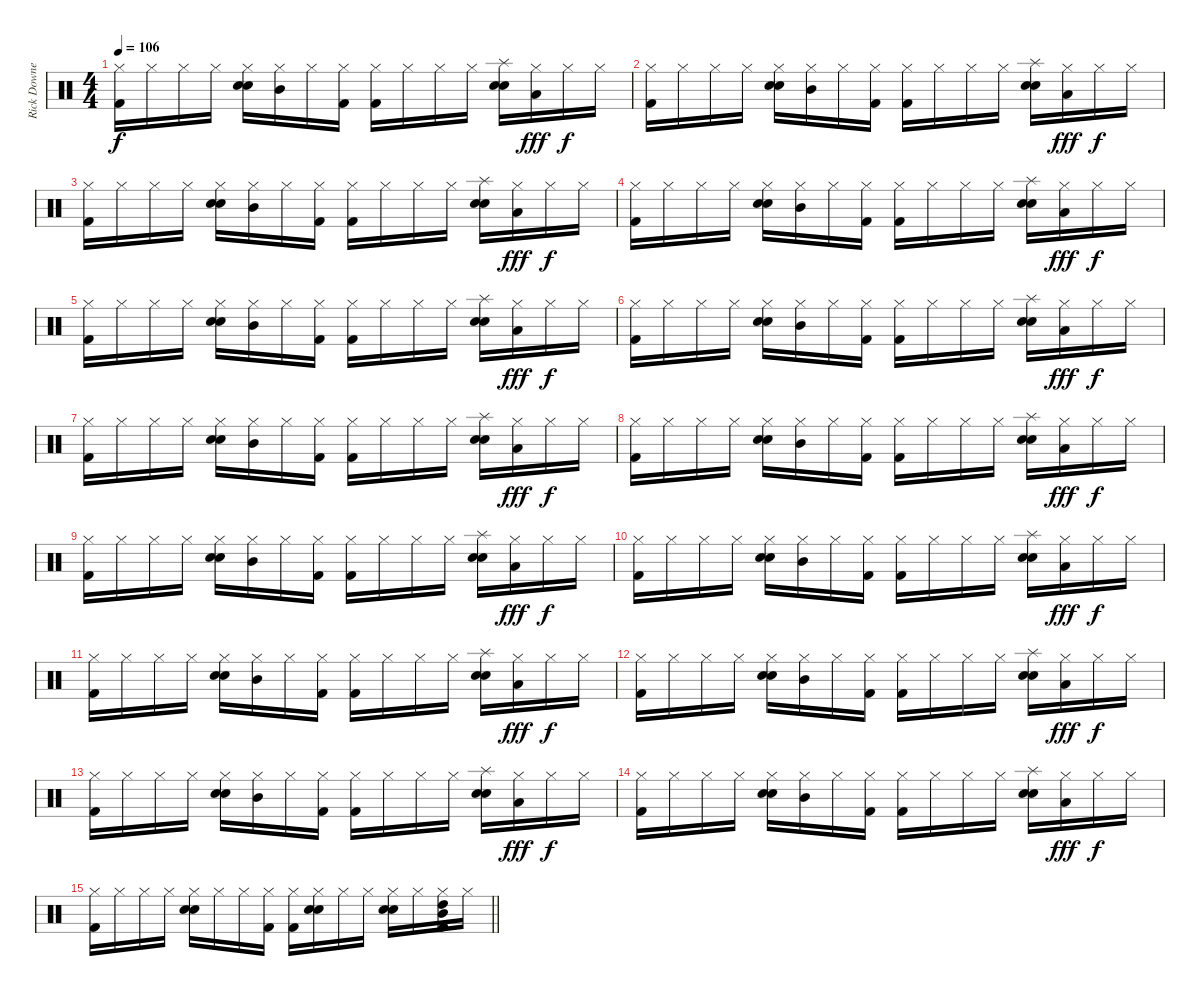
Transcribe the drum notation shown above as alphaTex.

\track ("Rick Downey" "Rick Downe") {instrument percussion}
\staff {score}
\articulation defaults
\ts (4 4)
\tempo 106
\clef neutral
\ks c
("Hi-Hat (closed)" "Kick (hit) 2").16{dy f} "Hi-Hat (closed)".16 "Hi-Hat (closed)".16 "Hi-Hat (closed)".16 ("Hi-Hat (closed)" "Electric Snare (hit)" "Snare (hit) 2").16 ("Mid Tom (hit)" "Hi-Hat (closed)").16 "Hi-Hat (closed)".16 ("Hi-Hat (closed)" "Kick (hit) 2").16 ("Hi-Hat (closed)" "Kick (hit) 2").16 "Hi-Hat (closed)".16 "Hi-Hat (closed)".16 "Hi-Hat (closed)".16 ("Splash (hit)" "Electric Snare (hit)" "Snare (hit) 2").16 ("Low Tom (hit)" "Hi-Hat (closed)").16{dy fff} "Hi-Hat (closed)".16{dy f} "Hi-Hat (closed)".16 |
("Hi-Hat (closed)" "Kick (hit) 2").16 "Hi-Hat (closed)".16 "Hi-Hat (closed)".16 "Hi-Hat (closed)".16 ("Hi-Hat (closed)" "Electric Snare (hit)" "Snare (hit) 2").16 ("Mid Tom (hit)" "Hi-Hat (closed)").16 "Hi-Hat (closed)".16 ("Hi-Hat (closed)" "Kick (hit) 2").16 ("Hi-Hat (closed)" "Kick (hit) 2").16 "Hi-Hat (closed)".16 "Hi-Hat (closed)".16 "Hi-Hat (closed)".16 ("Splash (hit)" "Electric Snare (hit)" "Snare (hit) 2").16 ("Low Tom (hit)" "Hi-Hat (closed)").16{dy fff} "Hi-Hat (closed)".16{dy f} "Hi-Hat (closed)".16 |
("Hi-Hat (closed)" "Kick (hit) 2").16 "Hi-Hat (closed)".16 "Hi-Hat (closed)".16 "Hi-Hat (closed)".16 ("Hi-Hat (closed)" "Electric Snare (hit)" "Snare (hit) 2").16 ("Mid Tom (hit)" "Hi-Hat (closed)").16 "Hi-Hat (closed)".16 ("Hi-Hat (closed)" "Kick (hit) 2").16 ("Hi-Hat (closed)" "Kick (hit) 2").16 "Hi-Hat (closed)".16 "Hi-Hat (closed)".16 "Hi-Hat (closed)".16 ("Splash (hit)" "Electric Snare (hit)" "Snare (hit) 2").16 ("Low Tom (hit)" "Hi-Hat (closed)").16{dy fff} "Hi-Hat (closed)".16{dy f} "Hi-Hat (closed)".16 |
("Hi-Hat (closed)" "Kick (hit) 2").16 "Hi-Hat (closed)".16 "Hi-Hat (closed)".16 "Hi-Hat (closed)".16 ("Hi-Hat (closed)" "Electric Snare (hit)" "Snare (hit) 2").16 ("Mid Tom (hit)" "Hi-Hat (closed)").16 "Hi-Hat (closed)".16 ("Hi-Hat (closed)" "Kick (hit) 2").16 ("Hi-Hat (closed)" "Kick (hit) 2").16 "Hi-Hat (closed)".16 "Hi-Hat (closed)".16 "Hi-Hat (closed)".16 ("Splash (hit)" "Electric Snare (hit)" "Snare (hit) 2").16 ("Low Tom (hit)" "Hi-Hat (closed)").16{dy fff} "Hi-Hat (closed)".16{dy f} "Hi-Hat (closed)".16 |
("Hi-Hat (closed)" "Kick (hit) 2").16 "Hi-Hat (closed)".16 "Hi-Hat (closed)".16 "Hi-Hat (closed)".16 ("Hi-Hat (closed)" "Electric Snare (hit)" "Snare (hit) 2").16 ("Mid Tom (hit)" "Hi-Hat (closed)").16 "Hi-Hat (closed)".16 ("Hi-Hat (closed)" "Kick (hit) 2").16 ("Hi-Hat (closed)" "Kick (hit) 2").16 "Hi-Hat (closed)".16 "Hi-Hat (closed)".16 "Hi-Hat (closed)".16 ("Splash (hit)" "Electric Snare (hit)" "Snare (hit) 2").16 ("Low Tom (hit)" "Hi-Hat (closed)").16{dy fff} "Hi-Hat (closed)".16{dy f} "Hi-Hat (closed)".16 |
("Hi-Hat (closed)" "Kick (hit) 2").16 "Hi-Hat (closed)".16 "Hi-Hat (closed)".16 "Hi-Hat (closed)".16 ("Hi-Hat (closed)" "Electric Snare (hit)" "Snare (hit) 2").16 ("Mid Tom (hit)" "Hi-Hat (closed)").16 "Hi-Hat (closed)".16 ("Hi-Hat (closed)" "Kick (hit) 2").16 ("Hi-Hat (closed)" "Kick (hit) 2").16 "Hi-Hat (closed)".16 "Hi-Hat (closed)".16 "Hi-Hat (closed)".16 ("Splash (hit)" "Electric Snare (hit)" "Snare (hit) 2").16 ("Low Tom (hit)" "Hi-Hat (closed)").16{dy fff} "Hi-Hat (closed)".16{dy f} "Hi-Hat (closed)".16 |
("Hi-Hat (closed)" "Kick (hit) 2").16 "Hi-Hat (closed)".16 "Hi-Hat (closed)".16 "Hi-Hat (closed)".16 ("Hi-Hat (closed)" "Electric Snare (hit)" "Snare (hit) 2").16 ("Mid Tom (hit)" "Hi-Hat (closed)").16 "Hi-Hat (closed)".16 ("Hi-Hat (closed)" "Kick (hit) 2").16 ("Hi-Hat (closed)" "Kick (hit) 2").16 "Hi-Hat (closed)".16 "Hi-Hat (closed)".16 "Hi-Hat (closed)".16 ("Splash (hit)" "Electric Snare (hit)" "Snare (hit) 2").16 ("Low Tom (hit)" "Hi-Hat (closed)").16{dy fff} "Hi-Hat (closed)".16{dy f} "Hi-Hat (closed)".16 |
("Hi-Hat (closed)" "Kick (hit) 2").16 "Hi-Hat (closed)".16 "Hi-Hat (closed)".16 "Hi-Hat (closed)".16 ("Hi-Hat (closed)" "Electric Snare (hit)" "Snare (hit) 2").16 ("Mid Tom (hit)" "Hi-Hat (closed)").16 "Hi-Hat (closed)".16 ("Hi-Hat (closed)" "Kick (hit) 2").16 ("Hi-Hat (closed)" "Kick (hit) 2").16 "Hi-Hat (closed)".16 "Hi-Hat (closed)".16 "Hi-Hat (closed)".16 ("Splash (hit)" "Electric Snare (hit)" "Snare (hit) 2").16 ("Low Tom (hit)" "Hi-Hat (closed)").16{dy fff} "Hi-Hat (closed)".16{dy f} "Hi-Hat (closed)".16 |
("Hi-Hat (closed)" "Kick (hit) 2").16 "Hi-Hat (closed)".16 "Hi-Hat (closed)".16 "Hi-Hat (closed)".16 ("Hi-Hat (closed)" "Electric Snare (hit)" "Snare (hit) 2").16 ("Mid Tom (hit)" "Hi-Hat (closed)").16 "Hi-Hat (closed)".16 ("Hi-Hat (closed)" "Kick (hit) 2").16 ("Hi-Hat (closed)" "Kick (hit) 2").16 "Hi-Hat (closed)".16 "Hi-Hat (closed)".16 "Hi-Hat (closed)".16 ("Splash (hit)" "Electric Snare (hit)" "Snare (hit) 2").16 ("Low Tom (hit)" "Hi-Hat (closed)").16{dy fff} "Hi-Hat (closed)".16{dy f} "Hi-Hat (closed)".16 |
("Hi-Hat (closed)" "Kick (hit) 2").16 "Hi-Hat (closed)".16 "Hi-Hat (closed)".16 "Hi-Hat (closed)".16 ("Hi-Hat (closed)" "Electric Snare (hit)" "Snare (hit) 2").16 ("Mid Tom (hit)" "Hi-Hat (closed)").16 "Hi-Hat (closed)".16 ("Hi-Hat (closed)" "Kick (hit) 2").16 ("Hi-Hat (closed)" "Kick (hit) 2").16 "Hi-Hat (closed)".16 "Hi-Hat (closed)".16 "Hi-Hat (closed)".16 ("Splash (hit)" "Electric Snare (hit)" "Snare (hit) 2").16 ("Low Tom (hit)" "Hi-Hat (closed)").16{dy fff} "Hi-Hat (closed)".16{dy f} "Hi-Hat (closed)".16 |
("Hi-Hat (closed)" "Kick (hit) 2").16 "Hi-Hat (closed)".16 "Hi-Hat (closed)".16 "Hi-Hat (closed)".16 ("Hi-Hat (closed)" "Electric Snare (hit)" "Snare (hit) 2").16 ("Mid Tom (hit)" "Hi-Hat (closed)").16 "Hi-Hat (closed)".16 ("Hi-Hat (closed)" "Kick (hit) 2").16 ("Hi-Hat (closed)" "Kick (hit) 2").16 "Hi-Hat (closed)".16 "Hi-Hat (closed)".16 "Hi-Hat (closed)".16 ("Splash (hit)" "Electric Snare (hit)" "Snare (hit) 2").16 ("Low Tom (hit)" "Hi-Hat (closed)").16{dy fff} "Hi-Hat (closed)".16{dy f} "Hi-Hat (closed)".16 |
("Hi-Hat (closed)" "Kick (hit) 2").16 "Hi-Hat (closed)".16 "Hi-Hat (closed)".16 "Hi-Hat (closed)".16 ("Hi-Hat (closed)" "Electric Snare (hit)" "Snare (hit) 2").16 ("Mid Tom (hit)" "Hi-Hat (closed)").16 "Hi-Hat (closed)".16 ("Hi-Hat (closed)" "Kick (hit) 2").16 ("Hi-Hat (closed)" "Kick (hit) 2").16 "Hi-Hat (closed)".16 "Hi-Hat (closed)".16 "Hi-Hat (closed)".16 ("Splash (hit)" "Electric Snare (hit)" "Snare (hit) 2").16 ("Low Tom (hit)" "Hi-Hat (closed)").16{dy fff} "Hi-Hat (closed)".16{dy f} "Hi-Hat (closed)".16 |
("Hi-Hat (closed)" "Kick (hit) 2").16 "Hi-Hat (closed)".16 "Hi-Hat (closed)".16 "Hi-Hat (closed)".16 ("Hi-Hat (closed)" "Electric Snare (hit)" "Snare (hit) 2").16 ("Mid Tom (hit)" "Hi-Hat (closed)").16 "Hi-Hat (closed)".16 ("Hi-Hat (closed)" "Kick (hit) 2").16 ("Hi-Hat (closed)" "Kick (hit) 2").16 "Hi-Hat (closed)".16 "Hi-Hat (closed)".16 "Hi-Hat (closed)".16 ("Splash (hit)" "Electric Snare (hit)" "Snare (hit) 2").16 ("Low Tom (hit)" "Hi-Hat (closed)").16{dy fff} "Hi-Hat (closed)".16{dy f} "Hi-Hat (closed)".16 |
("Hi-Hat (closed)" "Kick (hit) 2").16 "Hi-Hat (closed)".16 "Hi-Hat (closed)".16 "Hi-Hat (closed)".16 ("Hi-Hat (closed)" "Electric Snare (hit)" "Snare (hit) 2").16 ("Mid Tom (hit)" "Hi-Hat (closed)").16 "Hi-Hat (closed)".16 ("Hi-Hat (closed)" "Kick (hit) 2").16 ("Hi-Hat (closed)" "Kick (hit) 2").16 "Hi-Hat (closed)".16 "Hi-Hat (closed)".16 "Hi-Hat (closed)".16 ("Splash (hit)" "Electric Snare (hit)" "Snare (hit) 2").16 ("Low Tom (hit)" "Hi-Hat (closed)").16{dy fff} "Hi-Hat (closed)".16{dy f} "Hi-Hat (closed)".16 |
\barLineRight lightlight
("Hi-Hat (closed)" "Kick (hit) 2").16 "Hi-Hat (closed)".16 "Hi-Hat (closed)".16 "Hi-Hat (closed)".16 ("Hi-Hat (closed)" "Electric Snare (hit)" "Snare (hit) 2").16 "Hi-Hat (closed)".16 "Hi-Hat (closed)".16 ("Hi-Hat (closed)" "Kick (hit) 2").16 ("Hi-Hat (closed)" "Kick (hit) 2").16 ("Hi-Hat (closed)" "Electric Snare (hit)" "Snare (hit) 2").16 "Hi-Hat (closed)".16 "Hi-Hat (closed)".16 ("Hi-Hat (closed)" "Electric Snare (hit)" "Snare (hit) 2").16 "Hi-Hat (closed)".16 ("High Tom (hit)" "Mid Tom (hit)" "Hi-Hat (closed)" "Kick (hit) 2").16 "Hi-Hat (closed)".16
